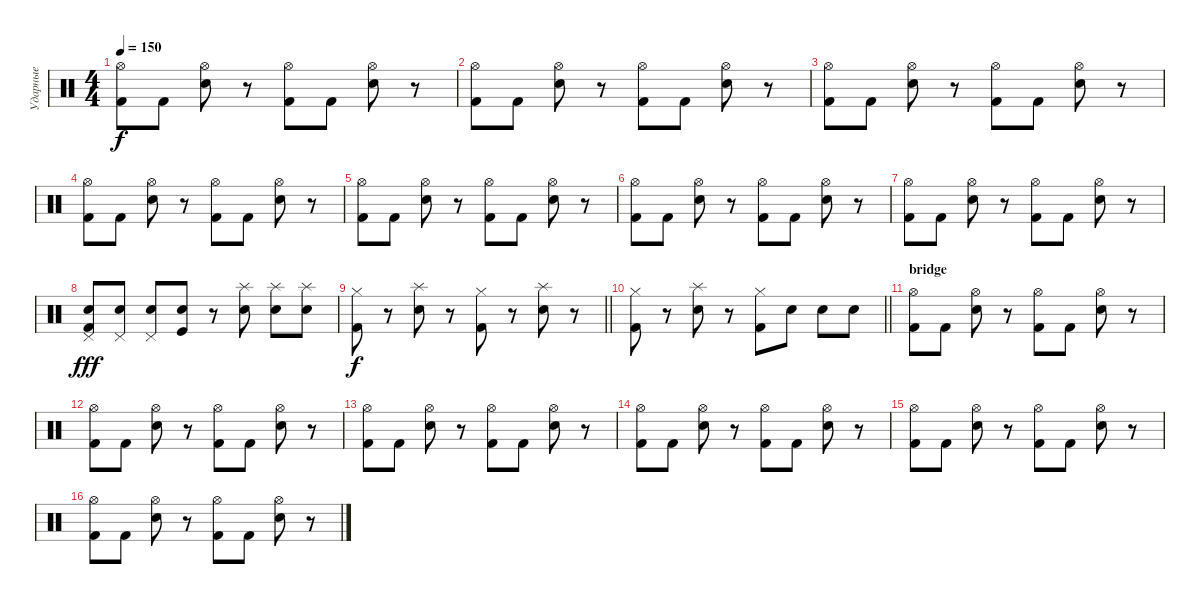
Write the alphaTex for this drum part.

\track ("Ударные" "Ударные") {instrument percussion}
\staff {score}
\articulation defaults
\ts (4 4)
\tempo 150
\clef neutral
\ks c
("Kick (hit) 2" "Hi-Hat (open)").8{dy f} "Kick (hit) 2".8 ("Snare (hit) 2" "Hi-Hat (open)").8 r.8 ("Kick (hit) 2" "Hi-Hat (open)").8 "Kick (hit) 2".8 ("Snare (hit) 2" "Hi-Hat (open)").8 r.8 |
("Kick (hit) 2" "Hi-Hat (open)").8 "Kick (hit) 2".8 ("Snare (hit) 2" "Hi-Hat (open)").8 r.8 ("Kick (hit) 2" "Hi-Hat (open)").8 "Kick (hit) 2".8 ("Snare (hit) 2" "Hi-Hat (open)").8 r.8 |
("Kick (hit) 2" "Hi-Hat (open)").8 "Kick (hit) 2".8 ("Snare (hit) 2" "Hi-Hat (open)").8 r.8 ("Kick (hit) 2" "Hi-Hat (open)").8 "Kick (hit) 2".8 ("Snare (hit) 2" "Hi-Hat (open)").8 r.8 |
("Kick (hit) 2" "Hi-Hat (open)").8 "Kick (hit) 2".8 ("Snare (hit) 2" "Hi-Hat (open)").8 r.8 ("Kick (hit) 2" "Hi-Hat (open)").8 "Kick (hit) 2".8 ("Snare (hit) 2" "Hi-Hat (open)").8 r.8 |
("Kick (hit) 2" "Hi-Hat (open)").8 "Kick (hit) 2".8 ("Snare (hit) 2" "Hi-Hat (open)").8 r.8 ("Kick (hit) 2" "Hi-Hat (open)").8 "Kick (hit) 2".8 ("Snare (hit) 2" "Hi-Hat (open)").8 r.8 |
("Kick (hit) 2" "Hi-Hat (open)").8 "Kick (hit) 2".8 ("Snare (hit) 2" "Hi-Hat (open)").8 r.8 ("Kick (hit) 2" "Hi-Hat (open)").8 "Kick (hit) 2".8 ("Snare (hit) 2" "Hi-Hat (open)").8 r.8 |
("Kick (hit) 2" "Hi-Hat (open)").8 "Kick (hit) 2".8 ("Snare (hit) 2" "Hi-Hat (open)").8 r.8 ("Kick (hit) 2" "Hi-Hat (open)").8 "Kick (hit) 2".8 ("Snare (hit) 2" "Hi-Hat (open)").8 r.8 |
("Pedal Hi-Hat (hit)" "Kick (hit) 2" "Snare (hit) 2").8{dy fff} ("Pedal Hi-Hat (hit)" "Snare (hit) 2").8 ("Pedal Hi-Hat (hit)" "Snare (hit) 2").8 ("Kick (hit)" "Snare (hit) 2").8 r.8 ("Splash (hit)" "Snare (hit) 2").8 ("Splash (hit)" "Snare (hit) 2").8 ("Splash (hit)" "Snare (hit) 2").8 |
\barLineRight lightlight
("Kick (hit) 2" "Hi-Hat (closed)").8{dy f} r.8 ("Electric Snare (hit)" "Splash (hit)").8 r.8 ("Kick (hit) 2" "Hi-Hat (closed)").8 r.8 ("Electric Snare (hit)" "Splash (hit)").8 r.8 |
\barLineRight lightlight
("Kick (hit) 2" "Hi-Hat (closed)").8 r.8 ("Electric Snare (hit)" "Splash (hit)").8 r.8 ("Kick (hit) 2" "Hi-Hat (closed)").8 "Snare (hit) 2".8 "Snare (hit) 2".8 "Snare (hit) 2".8 |
\section ("" "bridge")
("Kick (hit) 2" "Hi-Hat (open)").8 "Kick (hit) 2".8 ("Snare (hit) 2" "Hi-Hat (open)").8 r.8 ("Kick (hit) 2" "Hi-Hat (open)").8 "Kick (hit) 2".8 ("Snare (hit) 2" "Hi-Hat (open)").8 r.8 |
("Kick (hit) 2" "Hi-Hat (open)").8 "Kick (hit) 2".8 ("Snare (hit) 2" "Hi-Hat (open)").8 r.8 ("Kick (hit) 2" "Hi-Hat (open)").8 "Kick (hit) 2".8 ("Snare (hit) 2" "Hi-Hat (open)").8 r.8 |
("Kick (hit) 2" "Hi-Hat (open)").8 "Kick (hit) 2".8 ("Snare (hit) 2" "Hi-Hat (open)").8 r.8 ("Kick (hit) 2" "Hi-Hat (open)").8 "Kick (hit) 2".8 ("Snare (hit) 2" "Hi-Hat (open)").8 r.8 |
("Kick (hit) 2" "Hi-Hat (open)").8 "Kick (hit) 2".8 ("Snare (hit) 2" "Hi-Hat (open)").8 r.8 ("Kick (hit) 2" "Hi-Hat (open)").8 "Kick (hit) 2".8 ("Snare (hit) 2" "Hi-Hat (open)").8 r.8 |
("Kick (hit) 2" "Hi-Hat (open)").8 "Kick (hit) 2".8 ("Snare (hit) 2" "Hi-Hat (open)").8 r.8 ("Kick (hit) 2" "Hi-Hat (open)").8 "Kick (hit) 2".8 ("Snare (hit) 2" "Hi-Hat (open)").8 r.8 |
("Kick (hit) 2" "Hi-Hat (open)").8 "Kick (hit) 2".8 ("Snare (hit) 2" "Hi-Hat (open)").8 r.8 ("Kick (hit) 2" "Hi-Hat (open)").8 "Kick (hit) 2".8 ("Snare (hit) 2" "Hi-Hat (open)").8 r.8
